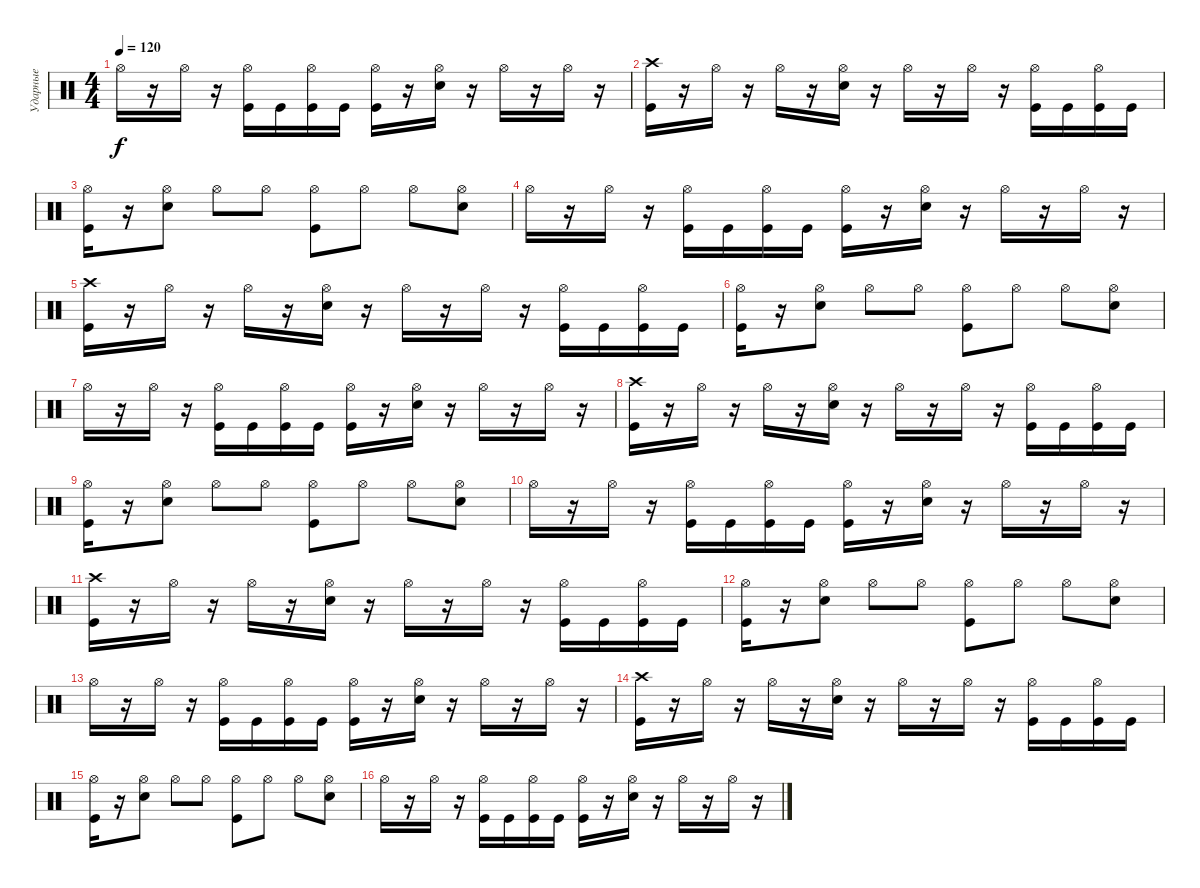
\track ("Ударные" "Ударные") {instrument percussion}
\staff {score}
\articulation defaults
\ts (4 4)
\tempo 120
\clef neutral
\ks c "Hi-Hat (open)".16{dy f}
r.16 "Hi-Hat (open)".16 r.16 ("Hi-Hat (open)" "Kick (hit)").16 "Kick (hit)".16 ("Hi-Hat (open)" "Kick (hit)").16 "Kick (hit)".16 ("Hi-Hat (open)" "Kick (hit)").16 r.16 ("Hi-Hat (open)" "Snare (hit) 2").16 r.16 "Hi-Hat (open)".16 r.16 "Hi-Hat (open)".16 r.16 |
("Crash high (hit)" "Kick (hit)").16 r.16 "Hi-Hat (open)".16 r.16 "Hi-Hat (open)".16 r.16 ("Hi-Hat (open)" "Snare (hit) 2").16 r.16 "Hi-Hat (open)".16 r.16 "Hi-Hat (open)".16 r.16 ("Hi-Hat (open)" "Kick (hit)").16 "Kick (hit)".16 ("Hi-Hat (open)" "Kick (hit)").16 "Kick (hit)".16 |
("Hi-Hat (open)" "Kick (hit)").16 r.16 ("Hi-Hat (open)" "Snare (hit) 2").8 "Hi-Hat (open)".8 "Hi-Hat (open)".8 ("Hi-Hat (open)" "Kick (hit)").8 "Hi-Hat (open)".8 "Hi-Hat (open)".8 ("Hi-Hat (open)" "Snare (hit) 2").8 |
"Hi-Hat (open)".16 r.16 "Hi-Hat (open)".16 r.16 ("Hi-Hat (open)" "Kick (hit)").16 "Kick (hit)".16 ("Hi-Hat (open)" "Kick (hit)").16 "Kick (hit)".16 ("Hi-Hat (open)" "Kick (hit)").16 r.16 ("Hi-Hat (open)" "Snare (hit) 2").16 r.16 "Hi-Hat (open)".16 r.16 "Hi-Hat (open)".16 r.16 |
("Crash high (hit)" "Kick (hit)").16 r.16 "Hi-Hat (open)".16 r.16 "Hi-Hat (open)".16 r.16 ("Hi-Hat (open)" "Snare (hit) 2").16 r.16 "Hi-Hat (open)".16 r.16 "Hi-Hat (open)".16 r.16 ("Hi-Hat (open)" "Kick (hit)").16 "Kick (hit)".16 ("Hi-Hat (open)" "Kick (hit)").16 "Kick (hit)".16 |
("Hi-Hat (open)" "Kick (hit)").16 r.16 ("Hi-Hat (open)" "Snare (hit) 2").8 "Hi-Hat (open)".8 "Hi-Hat (open)".8 ("Hi-Hat (open)" "Kick (hit)").8 "Hi-Hat (open)".8 "Hi-Hat (open)".8 ("Hi-Hat (open)" "Snare (hit) 2").8 |
"Hi-Hat (open)".16 r.16 "Hi-Hat (open)".16 r.16 ("Hi-Hat (open)" "Kick (hit)").16 "Kick (hit)".16 ("Hi-Hat (open)" "Kick (hit)").16 "Kick (hit)".16 ("Hi-Hat (open)" "Kick (hit)").16 r.16 ("Hi-Hat (open)" "Snare (hit) 2").16 r.16 "Hi-Hat (open)".16 r.16 "Hi-Hat (open)".16 r.16 |
("Crash high (hit)" "Kick (hit)").16 r.16 "Hi-Hat (open)".16 r.16 "Hi-Hat (open)".16 r.16 ("Hi-Hat (open)" "Snare (hit) 2").16 r.16 "Hi-Hat (open)".16 r.16 "Hi-Hat (open)".16 r.16 ("Hi-Hat (open)" "Kick (hit)").16 "Kick (hit)".16 ("Hi-Hat (open)" "Kick (hit)").16 "Kick (hit)".16 |
("Hi-Hat (open)" "Kick (hit)").16 r.16 ("Hi-Hat (open)" "Snare (hit) 2").8 "Hi-Hat (open)".8 "Hi-Hat (open)".8 ("Hi-Hat (open)" "Kick (hit)").8 "Hi-Hat (open)".8 "Hi-Hat (open)".8 ("Hi-Hat (open)" "Snare (hit) 2").8 |
"Hi-Hat (open)".16 r.16 "Hi-Hat (open)".16 r.16 ("Hi-Hat (open)" "Kick (hit)").16 "Kick (hit)".16 ("Hi-Hat (open)" "Kick (hit)").16 "Kick (hit)".16 ("Hi-Hat (open)" "Kick (hit)").16 r.16 ("Hi-Hat (open)" "Snare (hit) 2").16 r.16 "Hi-Hat (open)".16 r.16 "Hi-Hat (open)".16 r.16 |
("Crash high (hit)" "Kick (hit)").16 r.16 "Hi-Hat (open)".16 r.16 "Hi-Hat (open)".16 r.16 ("Hi-Hat (open)" "Snare (hit) 2").16 r.16 "Hi-Hat (open)".16 r.16 "Hi-Hat (open)".16 r.16 ("Hi-Hat (open)" "Kick (hit)").16 "Kick (hit)".16 ("Hi-Hat (open)" "Kick (hit)").16 "Kick (hit)".16 |
("Hi-Hat (open)" "Kick (hit)").16 r.16 ("Hi-Hat (open)" "Snare (hit) 2").8 "Hi-Hat (open)".8 "Hi-Hat (open)".8 ("Hi-Hat (open)" "Kick (hit)").8 "Hi-Hat (open)".8 "Hi-Hat (open)".8 ("Hi-Hat (open)" "Snare (hit) 2").8 |
"Hi-Hat (open)".16 r.16 "Hi-Hat (open)".16 r.16 ("Hi-Hat (open)" "Kick (hit)").16 "Kick (hit)".16 ("Hi-Hat (open)" "Kick (hit)").16 "Kick (hit)".16 ("Hi-Hat (open)" "Kick (hit)").16 r.16 ("Hi-Hat (open)" "Snare (hit) 2").16 r.16 "Hi-Hat (open)".16 r.16 "Hi-Hat (open)".16 r.16 |
("Crash high (hit)" "Kick (hit)").16 r.16 "Hi-Hat (open)".16 r.16 "Hi-Hat (open)".16 r.16 ("Hi-Hat (open)" "Snare (hit) 2").16 r.16 "Hi-Hat (open)".16 r.16 "Hi-Hat (open)".16 r.16 ("Hi-Hat (open)" "Kick (hit)").16 "Kick (hit)".16 ("Hi-Hat (open)" "Kick (hit)").16 "Kick (hit)".16 |
("Hi-Hat (open)" "Kick (hit)").16 r.16 ("Hi-Hat (open)" "Snare (hit) 2").8 "Hi-Hat (open)".8 "Hi-Hat (open)".8 ("Hi-Hat (open)" "Kick (hit)").8 "Hi-Hat (open)".8 "Hi-Hat (open)".8 ("Hi-Hat (open)" "Snare (hit) 2").8 |
"Hi-Hat (open)".16 r.16 "Hi-Hat (open)".16 r.16 ("Hi-Hat (open)" "Kick (hit)").16 "Kick (hit)".16 ("Hi-Hat (open)" "Kick (hit)").16 "Kick (hit)".16 ("Hi-Hat (open)" "Kick (hit)").16 r.16 ("Hi-Hat (open)" "Snare (hit) 2").16 r.16 "Hi-Hat (open)".16 r.16 "Hi-Hat (open)".16 r.16
